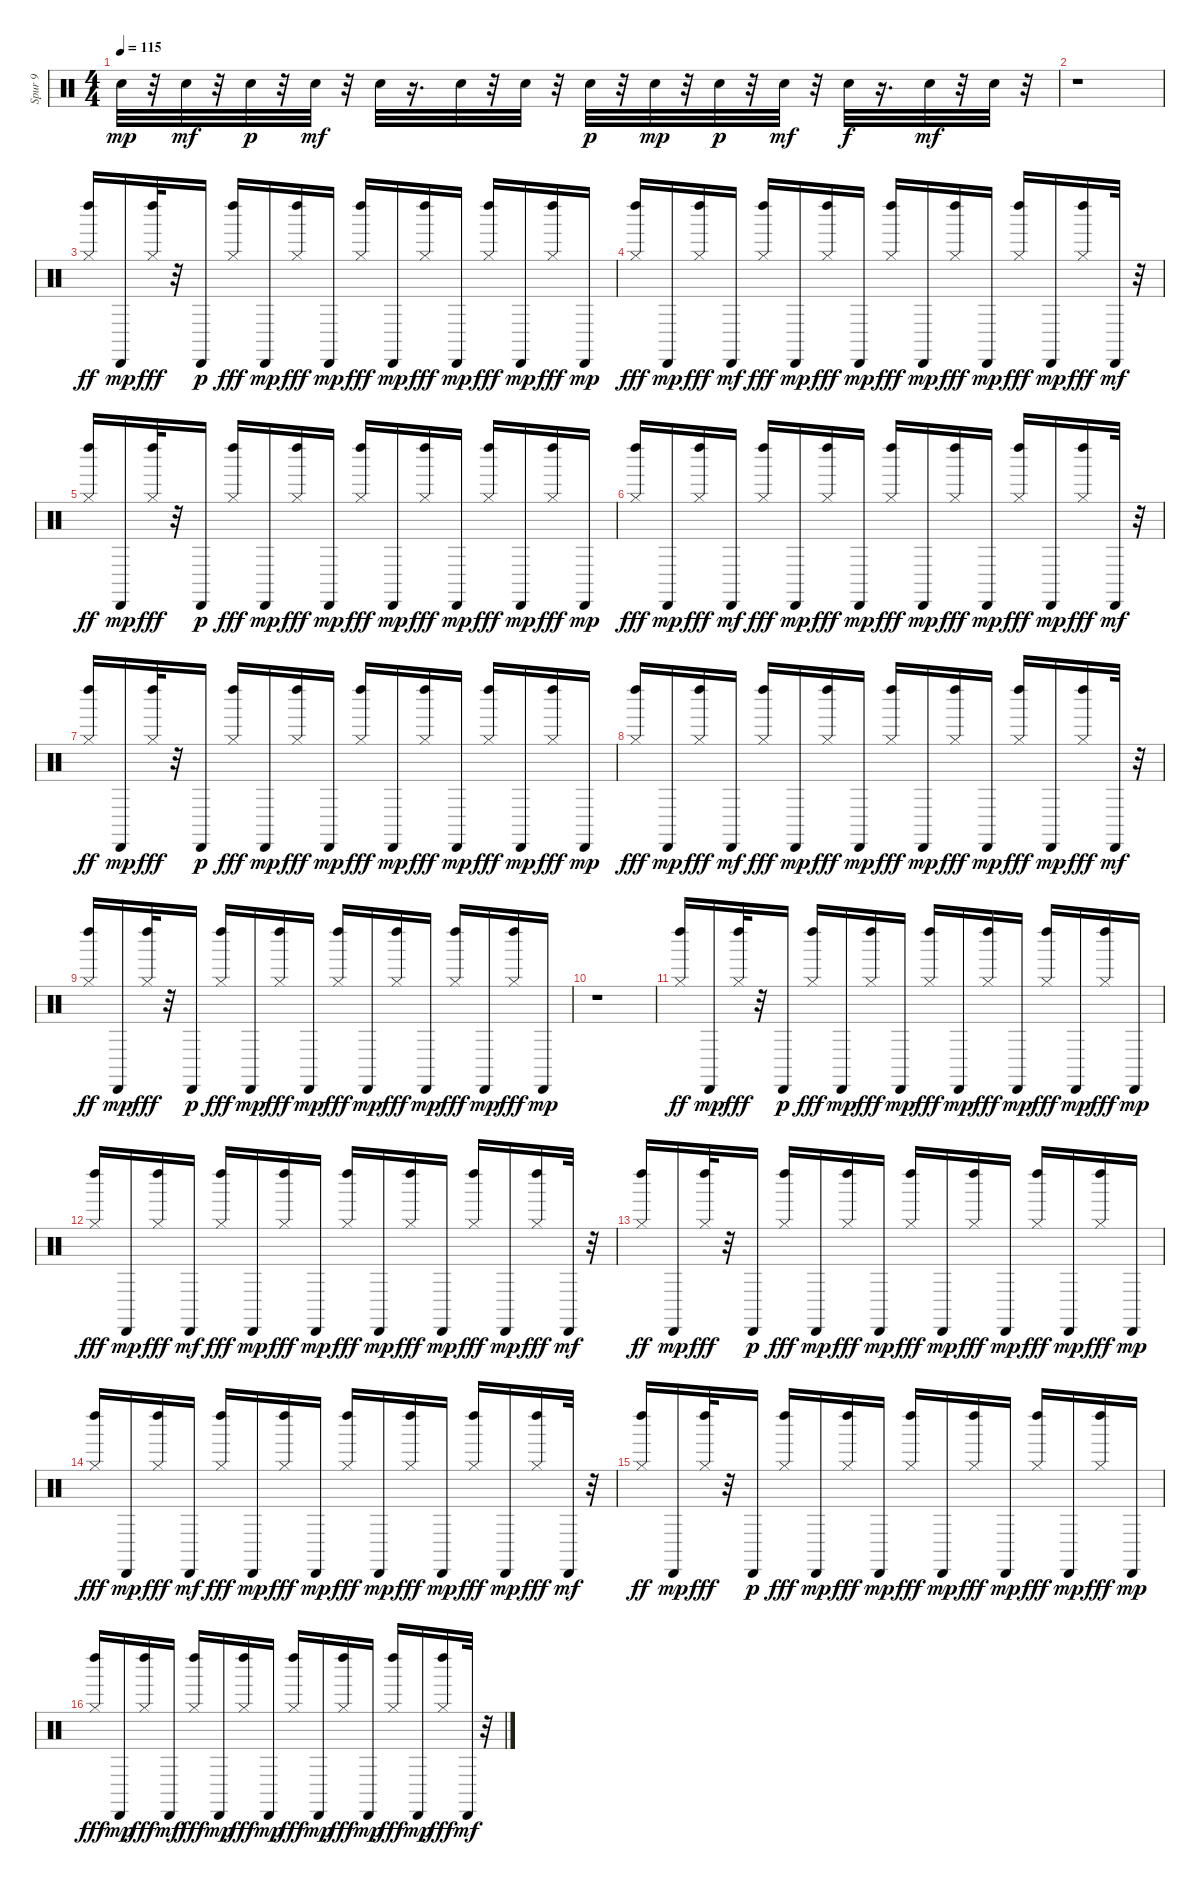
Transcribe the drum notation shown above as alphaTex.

\track ("Spur 9" "Spur 9") {instrument percussion}
\staff {score}
\articulation defaults
\ts (4 4)
\tempo 115
\clef neutral
\ks c "Electric Snare (hit)".32{dy mp}
r.32 "Electric Snare (hit)".32{dy mf} r.32 "Electric Snare (hit)".32{dy p} r.32 "Electric Snare (hit)".32{dy mf} r.32 "Electric Snare (hit)".32 r.16{d} "Electric Snare (hit)".32 r.32 "Electric Snare (hit)".32 r.32 "Electric Snare (hit)".32{dy p} r.32 "Electric Snare (hit)".32{dy mp} r.32 "Electric Snare (hit)".32{dy p} r.32 "Electric Snare (hit)".32{dy mf} r.32 "Electric Snare (hit)".32{dy f} r.16{d} "Electric Snare (hit)".32{dy mf} r.32 "Electric Snare (hit)".32 r.32 |
r.1 |
("Hi-Hat (closed)" "Left Maraca (hit)").16{dy ff volume 15} "Cabasa (hit)".16{dy mp} ("Left Maraca (hit)" "Hi-Hat (closed)").32{dy fff} r.32 "Cabasa (hit)".16{dy p} ("Left Maraca (hit)" "Hi-Hat (closed)").16{dy fff} "Cabasa (hit)".16{dy mp} ("Left Maraca (hit)" "Hi-Hat (closed)").16{dy fff} "Cabasa (hit)".16{dy mp} ("Left Maraca (hit)" "Hi-Hat (closed)").16{dy fff} "Cabasa (hit)".16{dy mp} ("Left Maraca (hit)" "Hi-Hat (closed)").16{dy fff} "Cabasa (hit)".16{dy mp} ("Left Maraca (hit)" "Hi-Hat (closed)").16{dy fff} "Cabasa (hit)".16{dy mp} ("Left Maraca (hit)" "Hi-Hat (closed)").16{dy fff} "Cabasa (hit)".16{dy mp} |
("Left Maraca (hit)" "Hi-Hat (closed)").16{dy fff} "Cabasa (hit)".16{dy mp} ("Hi-Hat (closed)" "Left Maraca (hit)").16{dy fff} "Cabasa (hit)".16{dy mf} ("Hi-Hat (closed)" "Left Maraca (hit)").16{dy fff} "Cabasa (hit)".16{dy mp} ("Hi-Hat (closed)" "Left Maraca (hit)").16{dy fff} "Cabasa (hit)".16{dy mp} ("Left Maraca (hit)" "Hi-Hat (closed)").16{dy fff} "Cabasa (hit)".16{dy mp} ("Left Maraca (hit)" "Hi-Hat (closed)").16{dy fff} "Cabasa (hit)".16{dy mp} ("Left Maraca (hit)" "Hi-Hat (closed)").16{dy fff} "Cabasa (hit)".16{dy mp} ("Left Maraca (hit)" "Hi-Hat (closed)").16{dy fff} "Cabasa (hit)".32{dy mf} r.32 |
("Hi-Hat (closed)" "Left Maraca (hit)").16{dy ff} "Cabasa (hit)".16{dy mp} ("Left Maraca (hit)" "Hi-Hat (closed)").32{dy fff} r.32 "Cabasa (hit)".16{dy p} ("Left Maraca (hit)" "Hi-Hat (closed)").16{dy fff} "Cabasa (hit)".16{dy mp} ("Left Maraca (hit)" "Hi-Hat (closed)").16{dy fff} "Cabasa (hit)".16{dy mp} ("Left Maraca (hit)" "Hi-Hat (closed)").16{dy fff} "Cabasa (hit)".16{dy mp} ("Left Maraca (hit)" "Hi-Hat (closed)").16{dy fff} "Cabasa (hit)".16{dy mp} ("Left Maraca (hit)" "Hi-Hat (closed)").16{dy fff} "Cabasa (hit)".16{dy mp} ("Left Maraca (hit)" "Hi-Hat (closed)").16{dy fff} "Cabasa (hit)".16{dy mp} |
("Left Maraca (hit)" "Hi-Hat (closed)").16{dy fff} "Cabasa (hit)".16{dy mp} ("Hi-Hat (closed)" "Left Maraca (hit)").16{dy fff} "Cabasa (hit)".16{dy mf} ("Hi-Hat (closed)" "Left Maraca (hit)").16{dy fff} "Cabasa (hit)".16{dy mp} ("Hi-Hat (closed)" "Left Maraca (hit)").16{dy fff} "Cabasa (hit)".16{dy mp} ("Left Maraca (hit)" "Hi-Hat (closed)").16{dy fff} "Cabasa (hit)".16{dy mp} ("Left Maraca (hit)" "Hi-Hat (closed)").16{dy fff} "Cabasa (hit)".16{dy mp} ("Left Maraca (hit)" "Hi-Hat (closed)").16{dy fff} "Cabasa (hit)".16{dy mp} ("Left Maraca (hit)" "Hi-Hat (closed)").16{dy fff} "Cabasa (hit)".32{dy mf} r.32 |
("Hi-Hat (closed)" "Left Maraca (hit)").16{dy ff} "Cabasa (hit)".16{dy mp} ("Left Maraca (hit)" "Hi-Hat (closed)").32{dy fff} r.32 "Cabasa (hit)".16{dy p} ("Left Maraca (hit)" "Hi-Hat (closed)").16{dy fff} "Cabasa (hit)".16{dy mp} ("Left Maraca (hit)" "Hi-Hat (closed)").16{dy fff} "Cabasa (hit)".16{dy mp} ("Left Maraca (hit)" "Hi-Hat (closed)").16{dy fff} "Cabasa (hit)".16{dy mp} ("Left Maraca (hit)" "Hi-Hat (closed)").16{dy fff} "Cabasa (hit)".16{dy mp} ("Left Maraca (hit)" "Hi-Hat (closed)").16{dy fff} "Cabasa (hit)".16{dy mp} ("Left Maraca (hit)" "Hi-Hat (closed)").16{dy fff} "Cabasa (hit)".16{dy mp} |
("Left Maraca (hit)" "Hi-Hat (closed)").16{dy fff} "Cabasa (hit)".16{dy mp} ("Hi-Hat (closed)" "Left Maraca (hit)").16{dy fff} "Cabasa (hit)".16{dy mf} ("Hi-Hat (closed)" "Left Maraca (hit)").16{dy fff} "Cabasa (hit)".16{dy mp} ("Hi-Hat (closed)" "Left Maraca (hit)").16{dy fff} "Cabasa (hit)".16{dy mp} ("Left Maraca (hit)" "Hi-Hat (closed)").16{dy fff} "Cabasa (hit)".16{dy mp} ("Left Maraca (hit)" "Hi-Hat (closed)").16{dy fff} "Cabasa (hit)".16{dy mp} ("Left Maraca (hit)" "Hi-Hat (closed)").16{dy fff} "Cabasa (hit)".16{dy mp} ("Left Maraca (hit)" "Hi-Hat (closed)").16{dy fff} "Cabasa (hit)".32{dy mf} r.32 |
("Hi-Hat (closed)" "Left Maraca (hit)").16{dy ff} "Cabasa (hit)".16{dy mp} ("Left Maraca (hit)" "Hi-Hat (closed)").32{dy fff} r.32 "Cabasa (hit)".16{dy p} ("Left Maraca (hit)" "Hi-Hat (closed)").16{dy fff} "Cabasa (hit)".16{dy mp} ("Left Maraca (hit)" "Hi-Hat (closed)").16{dy fff} "Cabasa (hit)".16{dy mp} ("Left Maraca (hit)" "Hi-Hat (closed)").16{dy fff} "Cabasa (hit)".16{dy mp} ("Left Maraca (hit)" "Hi-Hat (closed)").16{dy fff} "Cabasa (hit)".16{dy mp} ("Left Maraca (hit)" "Hi-Hat (closed)").16{dy fff} "Cabasa (hit)".16{dy mp} ("Left Maraca (hit)" "Hi-Hat (closed)").16{dy fff} "Cabasa (hit)".16{dy mp} |
r.1 |
("Hi-Hat (closed)" "Left Maraca (hit)").16{dy ff} "Cabasa (hit)".16{dy mp} ("Left Maraca (hit)" "Hi-Hat (closed)").32{dy fff} r.32 "Cabasa (hit)".16{dy p} ("Left Maraca (hit)" "Hi-Hat (closed)").16{dy fff} "Cabasa (hit)".16{dy mp} ("Left Maraca (hit)" "Hi-Hat (closed)").16{dy fff} "Cabasa (hit)".16{dy mp} ("Left Maraca (hit)" "Hi-Hat (closed)").16{dy fff} "Cabasa (hit)".16{dy mp} ("Left Maraca (hit)" "Hi-Hat (closed)").16{dy fff} "Cabasa (hit)".16{dy mp} ("Left Maraca (hit)" "Hi-Hat (closed)").16{dy fff} "Cabasa (hit)".16{dy mp} ("Left Maraca (hit)" "Hi-Hat (closed)").16{dy fff} "Cabasa (hit)".16{dy mp} |
("Left Maraca (hit)" "Hi-Hat (closed)").16{dy fff} "Cabasa (hit)".16{dy mp} ("Hi-Hat (closed)" "Left Maraca (hit)").16{dy fff} "Cabasa (hit)".16{dy mf} ("Hi-Hat (closed)" "Left Maraca (hit)").16{dy fff} "Cabasa (hit)".16{dy mp} ("Hi-Hat (closed)" "Left Maraca (hit)").16{dy fff} "Cabasa (hit)".16{dy mp} ("Left Maraca (hit)" "Hi-Hat (closed)").16{dy fff} "Cabasa (hit)".16{dy mp} ("Left Maraca (hit)" "Hi-Hat (closed)").16{dy fff} "Cabasa (hit)".16{dy mp} ("Left Maraca (hit)" "Hi-Hat (closed)").16{dy fff} "Cabasa (hit)".16{dy mp} ("Left Maraca (hit)" "Hi-Hat (closed)").16{dy fff} "Cabasa (hit)".32{dy mf} r.32 |
("Hi-Hat (closed)" "Left Maraca (hit)").16{dy ff} "Cabasa (hit)".16{dy mp} ("Left Maraca (hit)" "Hi-Hat (closed)").32{dy fff} r.32 "Cabasa (hit)".16{dy p} ("Left Maraca (hit)" "Hi-Hat (closed)").16{dy fff} "Cabasa (hit)".16{dy mp} ("Left Maraca (hit)" "Hi-Hat (closed)").16{dy fff} "Cabasa (hit)".16{dy mp} ("Left Maraca (hit)" "Hi-Hat (closed)").16{dy fff} "Cabasa (hit)".16{dy mp} ("Left Maraca (hit)" "Hi-Hat (closed)").16{dy fff} "Cabasa (hit)".16{dy mp} ("Left Maraca (hit)" "Hi-Hat (closed)").16{dy fff} "Cabasa (hit)".16{dy mp} ("Left Maraca (hit)" "Hi-Hat (closed)").16{dy fff} "Cabasa (hit)".16{dy mp} |
("Left Maraca (hit)" "Hi-Hat (closed)").16{dy fff} "Cabasa (hit)".16{dy mp} ("Hi-Hat (closed)" "Left Maraca (hit)").16{dy fff} "Cabasa (hit)".16{dy mf} ("Hi-Hat (closed)" "Left Maraca (hit)").16{dy fff} "Cabasa (hit)".16{dy mp} ("Hi-Hat (closed)" "Left Maraca (hit)").16{dy fff} "Cabasa (hit)".16{dy mp} ("Left Maraca (hit)" "Hi-Hat (closed)").16{dy fff} "Cabasa (hit)".16{dy mp} ("Left Maraca (hit)" "Hi-Hat (closed)").16{dy fff} "Cabasa (hit)".16{dy mp} ("Left Maraca (hit)" "Hi-Hat (closed)").16{dy fff} "Cabasa (hit)".16{dy mp} ("Left Maraca (hit)" "Hi-Hat (closed)").16{dy fff} "Cabasa (hit)".32{dy mf} r.32 |
("Hi-Hat (closed)" "Left Maraca (hit)").16{dy ff} "Cabasa (hit)".16{dy mp} ("Left Maraca (hit)" "Hi-Hat (closed)").32{dy fff} r.32 "Cabasa (hit)".16{dy p} ("Left Maraca (hit)" "Hi-Hat (closed)").16{dy fff} "Cabasa (hit)".16{dy mp} ("Left Maraca (hit)" "Hi-Hat (closed)").16{dy fff} "Cabasa (hit)".16{dy mp} ("Left Maraca (hit)" "Hi-Hat (closed)").16{dy fff} "Cabasa (hit)".16{dy mp} ("Left Maraca (hit)" "Hi-Hat (closed)").16{dy fff} "Cabasa (hit)".16{dy mp} ("Left Maraca (hit)" "Hi-Hat (closed)").16{dy fff} "Cabasa (hit)".16{dy mp} ("Left Maraca (hit)" "Hi-Hat (closed)").16{dy fff} "Cabasa (hit)".16{dy mp} |
("Left Maraca (hit)" "Hi-Hat (closed)").16{dy fff} "Cabasa (hit)".16{dy mp} ("Hi-Hat (closed)" "Left Maraca (hit)").16{dy fff} "Cabasa (hit)".16{dy mf} ("Hi-Hat (closed)" "Left Maraca (hit)").16{dy fff} "Cabasa (hit)".16{dy mp} ("Hi-Hat (closed)" "Left Maraca (hit)").16{dy fff} "Cabasa (hit)".16{dy mp} ("Left Maraca (hit)" "Hi-Hat (closed)").16{dy fff} "Cabasa (hit)".16{dy mp} ("Left Maraca (hit)" "Hi-Hat (closed)").16{dy fff} "Cabasa (hit)".16{dy mp} ("Left Maraca (hit)" "Hi-Hat (closed)").16{dy fff} "Cabasa (hit)".16{dy mp} ("Left Maraca (hit)" "Hi-Hat (closed)").16{dy fff} "Cabasa (hit)".32{dy mf} r.32
